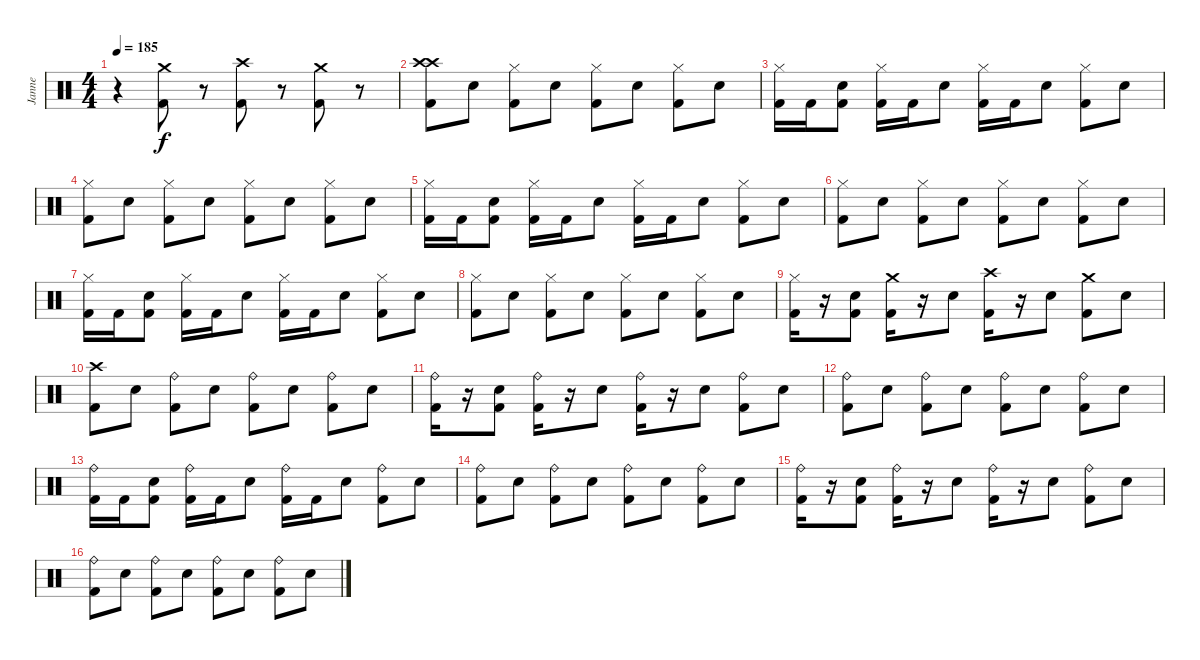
\track ("Janne" "Janne") {instrument percussion}
\staff {score}
\articulation defaults
\ts (4 4)
\tempo 185
\clef neutral
\ks c
r.4{dy f} ("Crash medium (hit)" "Kick (hit) 2").8 r.8 ("Crash high (hit)" "Kick (hit) 2").8 r.8 ("Crash medium (hit)" "Kick (hit) 2").8 r.8 |
("Crash high (hit)" "Crash high (hit)" "Kick (hit) 2").8 "Electric Snare (hit)".8 ("Hi-Hat (closed)" "Kick (hit) 2").8 "Electric Snare (hit)".8 ("Hi-Hat (closed)" "Kick (hit) 2").8 "Electric Snare (hit)".8 ("Hi-Hat (closed)" "Kick (hit) 2").8 "Electric Snare (hit)".8 |
("Hi-Hat (closed)" "Kick (hit) 2").16 "Kick (hit) 2".16 ("Electric Snare (hit)" "Kick (hit) 2").8 ("Hi-Hat (closed)" "Kick (hit) 2").16 "Kick (hit) 2".16 "Electric Snare (hit)".8 ("Hi-Hat (closed)" "Kick (hit) 2").16 "Kick (hit) 2".16 "Electric Snare (hit)".8 ("Hi-Hat (closed)" "Kick (hit) 2").8 "Electric Snare (hit)".8 |
("Hi-Hat (closed)" "Kick (hit) 2").8 "Electric Snare (hit)".8 ("Hi-Hat (closed)" "Kick (hit) 2").8 "Electric Snare (hit)".8 ("Hi-Hat (closed)" "Kick (hit) 2").8 "Electric Snare (hit)".8 ("Hi-Hat (closed)" "Kick (hit) 2").8 "Electric Snare (hit)".8 |
("Hi-Hat (closed)" "Kick (hit) 2").16 "Kick (hit) 2".16 ("Electric Snare (hit)" "Kick (hit) 2").8 ("Hi-Hat (closed)" "Kick (hit) 2").16 "Kick (hit) 2".16 "Electric Snare (hit)".8 ("Hi-Hat (closed)" "Kick (hit) 2").16 "Kick (hit) 2".16 "Electric Snare (hit)".8 ("Hi-Hat (closed)" "Kick (hit) 2").8 "Electric Snare (hit)".8 |
("Hi-Hat (closed)" "Kick (hit) 2").8 "Electric Snare (hit)".8 ("Hi-Hat (closed)" "Kick (hit) 2").8 "Electric Snare (hit)".8 ("Hi-Hat (closed)" "Kick (hit) 2").8 "Electric Snare (hit)".8 ("Hi-Hat (closed)" "Kick (hit) 2").8 "Electric Snare (hit)".8 |
("Hi-Hat (closed)" "Kick (hit) 2").16 "Kick (hit) 2".16 ("Electric Snare (hit)" "Kick (hit) 2").8 ("Hi-Hat (closed)" "Kick (hit) 2").16 "Kick (hit) 2".16 "Electric Snare (hit)".8 ("Hi-Hat (closed)" "Kick (hit) 2").16 "Kick (hit) 2".16 "Electric Snare (hit)".8 ("Hi-Hat (closed)" "Kick (hit) 2").8 "Electric Snare (hit)".8 |
("Hi-Hat (closed)" "Kick (hit) 2").8 "Electric Snare (hit)".8 ("Hi-Hat (closed)" "Kick (hit) 2").8 "Electric Snare (hit)".8 ("Hi-Hat (closed)" "Kick (hit) 2").8 "Electric Snare (hit)".8 ("Hi-Hat (closed)" "Kick (hit) 2").8 "Electric Snare (hit)".8 |
("Hi-Hat (closed)" "Kick (hit) 2").16 r.16 ("Electric Snare (hit)" "Kick (hit) 2").8 ("Crash medium (hit)" "Kick (hit) 2").16 r.16 "Electric Snare (hit)".8 ("Crash high (hit)" "Kick (hit) 2").16 r.16 "Electric Snare (hit)".8 ("Crash medium (hit)" "Kick (hit) 2").8 "Electric Snare (hit)".8 |
("Crash high (hit)" "Kick (hit) 2").8 "Electric Snare (hit)".8 ("Ride (bell)" "Kick (hit) 2").8 "Electric Snare (hit)".8 ("Ride (bell)" "Kick (hit) 2").8 "Electric Snare (hit)".8 ("Ride (bell)" "Kick (hit) 2").8 "Electric Snare (hit)".8 |
("Ride (bell)" "Kick (hit) 2").16 r.16 ("Electric Snare (hit)" "Kick (hit) 2").8 ("Ride (bell)" "Kick (hit) 2").16 r.16 "Electric Snare (hit)".8 ("Ride (bell)" "Kick (hit) 2").16 r.16 "Electric Snare (hit)".8 ("Ride (bell)" "Kick (hit) 2").8 "Electric Snare (hit)".8 |
("Ride (bell)" "Kick (hit) 2").8 "Electric Snare (hit)".8 ("Ride (bell)" "Kick (hit) 2").8 "Electric Snare (hit)".8 ("Ride (bell)" "Kick (hit) 2").8 "Electric Snare (hit)".8 ("Ride (bell)" "Kick (hit) 2").8 "Electric Snare (hit)".8 |
("Ride (bell)" "Kick (hit) 2").16 "Kick (hit) 2".16 ("Electric Snare (hit)" "Kick (hit) 2").8 ("Ride (bell)" "Kick (hit) 2").16 "Kick (hit) 2".16 "Electric Snare (hit)".8 ("Ride (bell)" "Kick (hit) 2").16 "Kick (hit) 2".16 "Electric Snare (hit)".8 ("Ride (bell)" "Kick (hit) 2").8 "Electric Snare (hit)".8 |
("Ride (bell)" "Kick (hit) 2").8 "Electric Snare (hit)".8 ("Ride (bell)" "Kick (hit) 2").8 "Electric Snare (hit)".8 ("Ride (bell)" "Kick (hit) 2").8 "Electric Snare (hit)".8 ("Ride (bell)" "Kick (hit) 2").8 "Electric Snare (hit)".8 |
("Ride (bell)" "Kick (hit) 2").16 r.16 ("Electric Snare (hit)" "Kick (hit) 2").8 ("Ride (bell)" "Kick (hit) 2").16 r.16 "Electric Snare (hit)".8 ("Ride (bell)" "Kick (hit) 2").16 r.16 "Electric Snare (hit)".8 ("Ride (bell)" "Kick (hit) 2").8 "Electric Snare (hit)".8 |
("Ride (bell)" "Kick (hit) 2").8 "Electric Snare (hit)".8 ("Ride (bell)" "Kick (hit) 2").8 "Electric Snare (hit)".8 ("Ride (bell)" "Kick (hit) 2").8 "Electric Snare (hit)".8 ("Ride (bell)" "Kick (hit) 2").8 "Electric Snare (hit)".8
